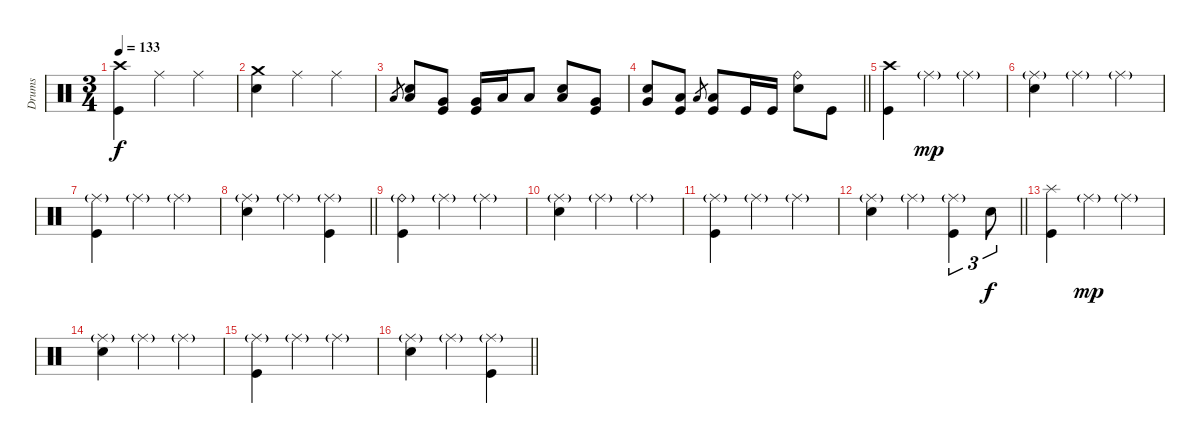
\track ("Drums" "Drums") {instrument percussion}
\staff
\articulation defaults
\ts (3 4)
\tempo 133
\clef neutral
\ks c
("Crash high (hit)" "Kick (hit)").4{dy f} "Ride (middle)".4 "Ride (middle)".4 |
("Crash medium (hit)" "Electric Snare (hit)").4 "Ride (middle)".4 "Ride (middle)".4 |
"Low Tom (hit)".8{gr} ("Low Tom (hit)" "Electric Snare (hit)").8 ("Very Low Tom (hit)" "Kick (hit)").8 ("Very Low Tom (hit)" "Kick (hit)").16 "Low Floor Tom (hit)".16 "Low Floor Tom (hit)".8 ("Low Tom (hit)" "Electric Snare (hit)").8 ("Very Low Tom (hit)" "Kick (hit)").8 |
\barLineRight lightlight
("Very Low Tom (hit)" "Electric Snare (hit)").8 ("Low Floor Tom (hit)" "Kick (hit)").8 "Low Floor Tom (hit)".8{gr} ("Low Floor Tom (hit)" "Kick (hit)").8 "Kick (hit)".16 "Kick (hit)".16 ("Ride (bell)" "Electric Snare (hit)").8 "Kick (hit)".8 |
\section ("" "")
("Crash high (hit)" "Kick (hit)").4 "Ride (middle)"{g}.4{dy mp} "Ride (middle)"{g}.4 |
("Ride (middle)"{g} "Electric Snare (hit)").4 "Ride (middle)"{g}.4 "Ride (middle)"{g}.4 |
("Ride (middle)"{g} "Kick (hit)").4 "Ride (middle)"{g}.4 "Ride (middle)"{g}.4 |
\barLineRight lightlight
("Ride (middle)"{g} "Electric Snare (hit)").4 "Ride (middle)"{g}.4 ("Ride (middle)"{g} "Kick (hit)").4 |
("Ride (bell)"{g} "Kick (hit)").4 "Ride (middle)"{g}.4 "Ride (middle)"{g}.4 |
("Ride (middle)"{g} "Electric Snare (hit)").4 "Ride (middle)"{g}.4 "Ride (middle)"{g}.4 |
("Ride (middle)"{g} "Kick (hit)").4 "Ride (middle)"{g}.4 "Ride (middle)"{g}.4 |
\barLineRight lightlight
("Ride (middle)"{g} "Electric Snare (hit)").4 "Ride (middle)"{g}.4 ("Ride (middle)"{g} "Kick (hit)").4{tu (3 2)} "Electric Snare (hit)".8{tu (3 2) dy f} |
("Splash (hit)" "Kick (hit)").4 "Ride (middle)"{g}.4{dy mp} "Ride (middle)"{g}.4 |
("Ride (middle)"{g} "Electric Snare (hit)").4 "Ride (middle)"{g}.4 "Ride (middle)"{g}.4 |
("Ride (middle)"{g} "Kick (hit)").4 "Ride (middle)"{g}.4 "Ride (middle)"{g}.4 |
\barLineRight lightlight
("Ride (middle)"{g} "Electric Snare (hit)").4 "Ride (middle)"{g}.4 ("Ride (middle)"{g} "Kick (hit)").4
